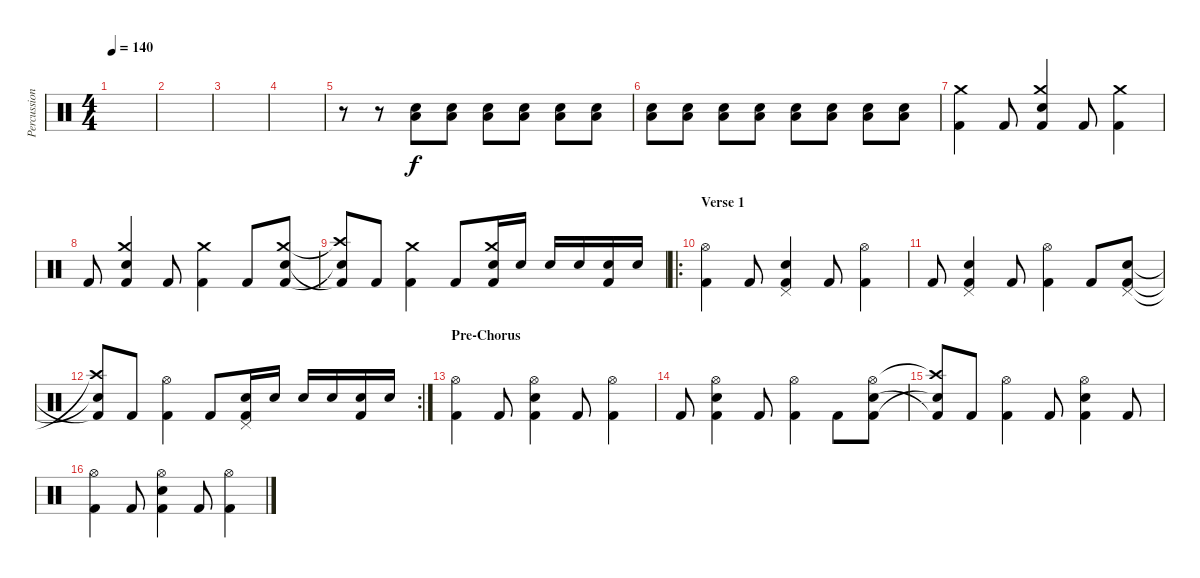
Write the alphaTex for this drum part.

\track ("Percussion" "Percussion") {instrument percussion}
\staff {score}
\articulation defaults
\ts (4 4)
\tempo 140
\clef neutral
\ks c
|
|
|
|
r.8 r.8 ("Electric Snare (hit)" "Low Floor Tom (hit)").8 ("Electric Snare (hit)" "Low Floor Tom (hit)").8 ("Electric Snare (hit)" "Low Floor Tom (hit)").8 ("Electric Snare (hit)" "Low Floor Tom (hit)").8 ("Electric Snare (hit)" "Low Floor Tom (hit)").8 ("Electric Snare (hit)" "Low Floor Tom (hit)").8 |
("Electric Snare (hit)" "Low Floor Tom (hit)").8 ("Electric Snare (hit)" "Low Floor Tom (hit)").8 ("Electric Snare (hit)" "Low Floor Tom (hit)").8 ("Electric Snare (hit)" "Low Floor Tom (hit)").8 ("Electric Snare (hit)" "Low Floor Tom (hit)").8 ("Electric Snare (hit)" "Low Floor Tom (hit)").8 ("Electric Snare (hit)" "Low Floor Tom (hit)").8 ("Electric Snare (hit)" "Low Floor Tom (hit)").8 |
("Crash medium (hit)" "Kick (hit) 2").4 "Kick (hit) 2".8 ("Crash medium (hit)" "Electric Snare (hit)" "Kick (hit) 2").4 "Kick (hit) 2".8 ("Crash medium (hit)" "Kick (hit) 2").4 |
"Kick (hit) 2".8 ("Electric Snare (hit)" "Crash medium (hit)" "Kick (hit) 2").4 "Kick (hit) 2".8 ("Crash medium (hit)" "Kick (hit) 2").4 "Kick (hit) 2".8 ("Crash medium (hit)" "Electric Snare (hit)" "Kick (hit) 2").8 |
("Crash high (hit)"{t} "Kick (hit) 2"{t} "Snare (hit)"{t}).8 "Kick (hit) 2".8 ("Crash medium (hit)" "Kick (hit) 2").4 "Kick (hit) 2".8 ("Electric Snare (hit)" "Crash medium (hit)" "Kick (hit) 2").16 "Electric Snare (hit)".16 "Electric Snare (hit)".16 "Electric Snare (hit)".16 ("Electric Snare (hit)" "Kick (hit) 2").16 "Electric Snare (hit)".16 |
\ro
\section ("" "Verse 1")
("Hi-Hat (open)" "Kick (hit) 2").4 "Kick (hit) 2".8 ("Pedal Hi-Hat (hit)" "Electric Snare (hit)" "Kick (hit) 2").4 "Kick (hit) 2".8 ("Hi-Hat (open)" "Kick (hit) 2").4 |
"Kick (hit) 2".8 ("Electric Snare (hit)" "Pedal Hi-Hat (hit)" "Kick (hit) 2").4 "Kick (hit) 2".8 ("Hi-Hat (open)" "Kick (hit) 2").4 "Kick (hit) 2".8 ("Pedal Hi-Hat (hit)" "Electric Snare (hit)" "Kick (hit) 2").8 |
\rc 2
("Crash high (hit)"{t} "Kick (hit) 2"{t} "Snare (hit)"{t}).8 "Kick (hit) 2".8 ("Hi-Hat (open)" "Kick (hit) 2").4 "Kick (hit) 2".8 ("Electric Snare (hit)" "Pedal Hi-Hat (hit)" "Kick (hit) 2").16 "Electric Snare (hit)".16 "Electric Snare (hit)".16 "Electric Snare (hit)".16 ("Electric Snare (hit)" "Kick (hit) 2").16 "Electric Snare (hit)".16 |
\section ("" "Pre-Chorus")
("Hi-Hat (open)" "Kick (hit) 2").4 "Kick (hit) 2".8 ("Hi-Hat (open)" "Electric Snare (hit)" "Kick (hit) 2").4 "Kick (hit) 2".8 ("Hi-Hat (open)" "Kick (hit) 2").4 |
"Kick (hit) 2".8 ("Electric Snare (hit)" "Hi-Hat (open)" "Kick (hit) 2").4 "Kick (hit) 2".8 ("Hi-Hat (open)" "Kick (hit) 2").4 "Kick (hit) 2".8 ("Hi-Hat (open)" "Electric Snare (hit)" "Kick (hit) 2").8 |
("Crash high (hit)"{t} "Kick (hit) 2"{t} "Snare (hit)"{t}).8 "Kick (hit) 2".8 ("Hi-Hat (open)" "Kick (hit) 2").4 "Kick (hit) 2".8 ("Electric Snare (hit)" "Hi-Hat (open)" "Kick (hit) 2").4 "Kick (hit) 2".8 |
("Hi-Hat (open)" "Kick (hit) 2").4 "Kick (hit) 2".8 ("Hi-Hat (open)" "Electric Snare (hit)" "Kick (hit) 2").4 "Kick (hit) 2".8 ("Hi-Hat (open)" "Kick (hit) 2").4
